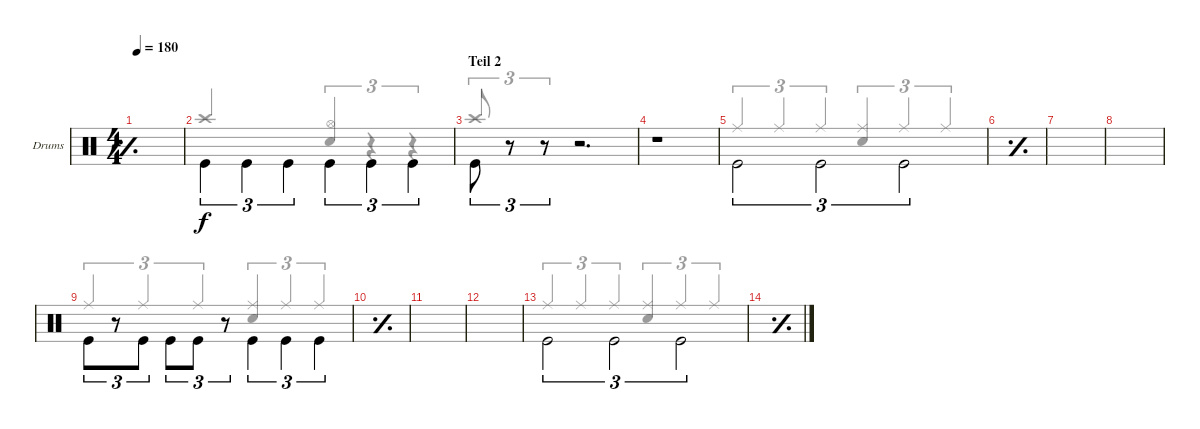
\defaultSystemsLayout 4
\bracketExtendMode groupsimilarinstruments
\multiBarRest
\firstSystemTrackNameOrientation horizontal
\otherSystemsTrackNameOrientation horizontal
\track ("Drumkit" "Drums") {instrument percussion}
\staff {score}
\articulation defaults
\voice
\ts (4 4)
\tempo 180
\clef neutral
\simile simple
\ks c
|
\simile none "Kick (hit)".4{tu (3 2) beam invert} "Kick (hit)".4{tu (3 2) beam invert} "Kick (hit)".4{tu (3 2) beam invert} "Kick (hit)".4{tu (3 2) beam invert} "Kick (hit)".4{tu (3 2) beam invert} "Kick (hit)".4{tu (3 2) beam invert}
|
\section ("" "Teil 2")
"Kick (hit)".8{tu (3 2) beam invert} r.8{tu (3 2)} r.8{tu (3 2)} r.2{d} |
r.1 |
"Kick (hit)".2{tu (3 2) beam invert} "Kick (hit)".2{tu (3 2) beam invert} "Kick (hit)".2{tu (3 2) beam invert} |
\simile simple
|
|
|
\simile none "Kick (hit)".8{tu (3 2)}
r.8{tu (3 2) beam invert} "Kick (hit)".8{tu (3 2) beam invert} "Kick (hit)".8{tu (3 2)} "Kick (hit)".8{tu (3 2) beam invert} r.8{tu (3 2) beam invert} "Kick (hit)".4{tu (3 2) beam invert} "Kick (hit)".4{tu (3 2) beam invert} "Kick (hit)".4{tu (3 2) beam invert} |
\simile simple
|
|
|
\simile none "Kick (hit)".2{tu (3 2) beam invert} "Kick (hit)".2{tu (3 2) beam invert} "Kick (hit)".2{tu (3 2) beam invert}
|
\simile simple
|
|
\voice
\clef neutral
\ottava regular
\simile simple
\ks c
|
\simile none "Crash high (hit)".2{beam invert}
("Hi-Hat (open)" "Snare (hit) 2").4{tu (3 2) beam invert} r.4{tu (3 2)} r.4{tu (3 2) beam invert} |
"Crash high (hit)".8{tu (3 2) beam invert} r.8{tu (3 2)} r.8{tu (3 2)} r.2{d} |
|
"Ride (middle)".4{tu (3 2) beam invert} "Ride (middle)".4{tu (3 2) beam invert} "Ride (middle)".4{tu (3 2) beam invert} ("Ride (middle)" "Snare (hit) 2").4{tu (3 2) beam invert} "Ride (middle)".4{tu (3 2) beam invert} "Ride (middle)".4{tu (3 2) beam invert} |
\simile simple
|
|
|
\simile none "Ride (middle)".4{tu (3 2) beam invert} "Ride (middle)".4{tu (3 2) beam invert} "Ride (middle)".4{tu (3 2) beam invert}
("Snare (hit) 2" "Ride (middle)").4{tu (3 2) beam invert} "Ride (middle)".4{tu (3 2) beam invert} "Ride (middle)".4{tu (3 2) beam invert} |
\simile simple
|
|
|
\simile none "Ride (middle)".4{tu (3 2) beam invert} "Ride (middle)".4{tu (3 2) beam invert} "Ride (middle)".4{tu (3 2) beam invert}
("Ride (middle)" "Snare (hit) 2").4{tu (3 2) beam invert} "Ride (middle)".4{tu (3 2) beam invert} "Ride (middle)".4{tu (3 2) beam invert} |
\simile simple
|
|
